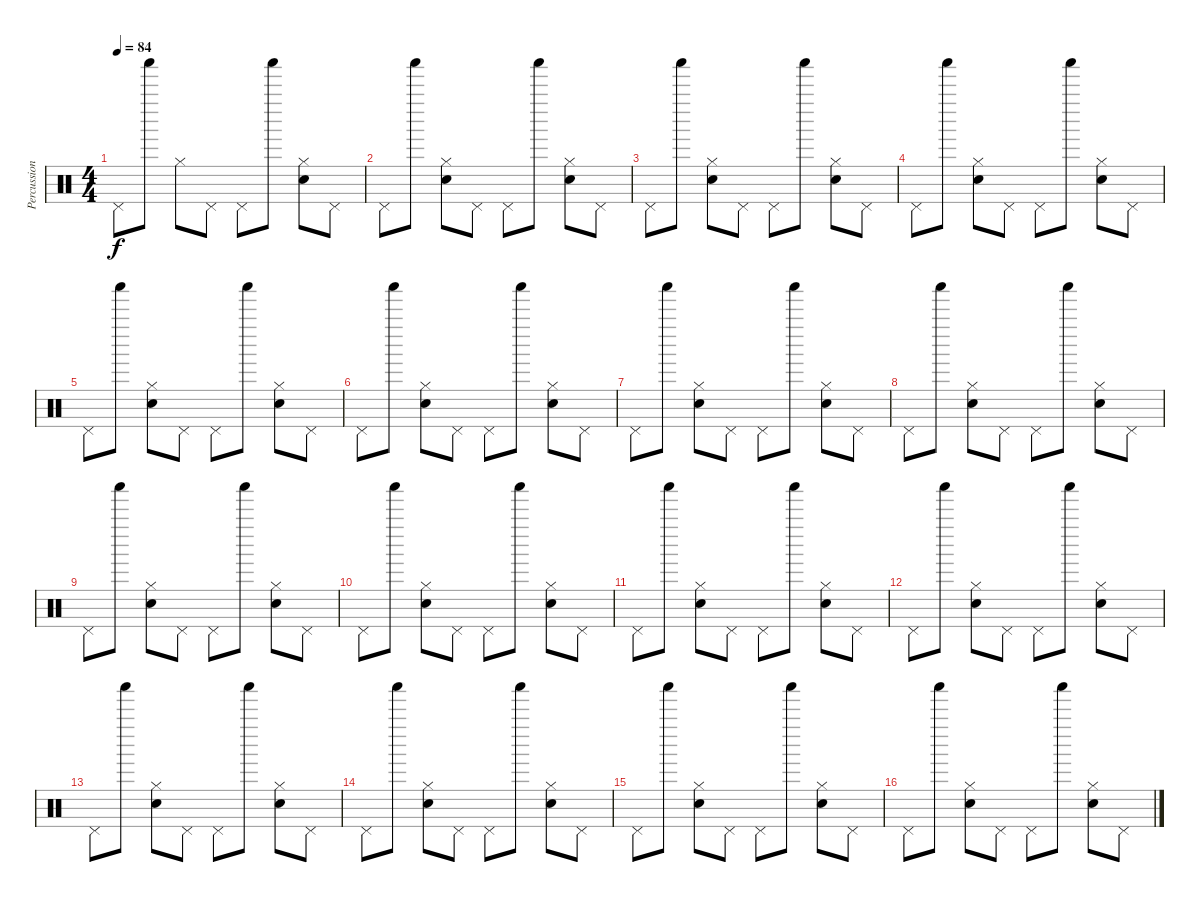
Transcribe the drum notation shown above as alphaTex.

\track ("Percussion" "Percussion") {instrument percussion}
\staff {score}
\articulation defaults
\ts (4 4)
\tempo 84
\clef neutral
\ks c "Pedal Hi-Hat (hit)".8{dy f} "Shaker (hit)".8 "Hi-Hat (closed)".8 "Pedal Hi-Hat (hit)".8 "Pedal Hi-Hat (hit)".8 "Shaker (hit)".8
("Hi-Hat (closed)" "Electric Snare (hit)").8 "Pedal Hi-Hat (hit)".8 |
"Pedal Hi-Hat (hit)".8 "Shaker (hit)".8 ("Hi-Hat (closed)" "Electric Snare (hit)").8 "Pedal Hi-Hat (hit)".8 "Pedal Hi-Hat (hit)".8 "Shaker (hit)".8 ("Hi-Hat (closed)" "Electric Snare (hit)").8 "Pedal Hi-Hat (hit)".8 |
"Pedal Hi-Hat (hit)".8 "Shaker (hit)".8 ("Hi-Hat (closed)" "Electric Snare (hit)").8 "Pedal Hi-Hat (hit)".8 "Pedal Hi-Hat (hit)".8 "Shaker (hit)".8 ("Hi-Hat (closed)" "Electric Snare (hit)").8 "Pedal Hi-Hat (hit)".8 |
"Pedal Hi-Hat (hit)".8 "Shaker (hit)".8 ("Hi-Hat (closed)" "Electric Snare (hit)").8 "Pedal Hi-Hat (hit)".8 "Pedal Hi-Hat (hit)".8 "Shaker (hit)".8 ("Hi-Hat (closed)" "Electric Snare (hit)").8 "Pedal Hi-Hat (hit)".8 |
"Pedal Hi-Hat (hit)".8 "Shaker (hit)".8 ("Hi-Hat (closed)" "Electric Snare (hit)").8 "Pedal Hi-Hat (hit)".8 "Pedal Hi-Hat (hit)".8 "Shaker (hit)".8 ("Hi-Hat (closed)" "Electric Snare (hit)").8 "Pedal Hi-Hat (hit)".8 |
"Pedal Hi-Hat (hit)".8 "Shaker (hit)".8 ("Hi-Hat (closed)" "Electric Snare (hit)").8 "Pedal Hi-Hat (hit)".8 "Pedal Hi-Hat (hit)".8 "Shaker (hit)".8 ("Hi-Hat (closed)" "Electric Snare (hit)").8 "Pedal Hi-Hat (hit)".8 |
"Pedal Hi-Hat (hit)".8 "Shaker (hit)".8 ("Hi-Hat (closed)" "Electric Snare (hit)").8 "Pedal Hi-Hat (hit)".8 "Pedal Hi-Hat (hit)".8 "Shaker (hit)".8 ("Hi-Hat (closed)" "Electric Snare (hit)").8 "Pedal Hi-Hat (hit)".8 |
"Pedal Hi-Hat (hit)".8 "Shaker (hit)".8 ("Hi-Hat (closed)" "Electric Snare (hit)").8 "Pedal Hi-Hat (hit)".8 "Pedal Hi-Hat (hit)".8 "Shaker (hit)".8 ("Hi-Hat (closed)" "Electric Snare (hit)").8 "Pedal Hi-Hat (hit)".8 |
"Pedal Hi-Hat (hit)".8 "Shaker (hit)".8 ("Hi-Hat (closed)" "Electric Snare (hit)").8 "Pedal Hi-Hat (hit)".8 "Pedal Hi-Hat (hit)".8 "Shaker (hit)".8 ("Hi-Hat (closed)" "Electric Snare (hit)").8 "Pedal Hi-Hat (hit)".8 |
"Pedal Hi-Hat (hit)".8 "Shaker (hit)".8 ("Hi-Hat (closed)" "Electric Snare (hit)").8 "Pedal Hi-Hat (hit)".8 "Pedal Hi-Hat (hit)".8 "Shaker (hit)".8 ("Hi-Hat (closed)" "Electric Snare (hit)").8 "Pedal Hi-Hat (hit)".8 |
"Pedal Hi-Hat (hit)".8 "Shaker (hit)".8 ("Hi-Hat (closed)" "Electric Snare (hit)").8 "Pedal Hi-Hat (hit)".8 "Pedal Hi-Hat (hit)".8 "Shaker (hit)".8 ("Hi-Hat (closed)" "Electric Snare (hit)").8 "Pedal Hi-Hat (hit)".8 |
"Pedal Hi-Hat (hit)".8 "Shaker (hit)".8 ("Hi-Hat (closed)" "Electric Snare (hit)").8 "Pedal Hi-Hat (hit)".8 "Pedal Hi-Hat (hit)".8 "Shaker (hit)".8 ("Hi-Hat (closed)" "Electric Snare (hit)").8 "Pedal Hi-Hat (hit)".8 |
"Pedal Hi-Hat (hit)".8 "Shaker (hit)".8 ("Hi-Hat (closed)" "Electric Snare (hit)").8 "Pedal Hi-Hat (hit)".8 "Pedal Hi-Hat (hit)".8 "Shaker (hit)".8 ("Hi-Hat (closed)" "Electric Snare (hit)").8 "Pedal Hi-Hat (hit)".8 |
"Pedal Hi-Hat (hit)".8 "Shaker (hit)".8 ("Hi-Hat (closed)" "Electric Snare (hit)").8 "Pedal Hi-Hat (hit)".8 "Pedal Hi-Hat (hit)".8 "Shaker (hit)".8 ("Hi-Hat (closed)" "Electric Snare (hit)").8 "Pedal Hi-Hat (hit)".8 |
"Pedal Hi-Hat (hit)".8 "Shaker (hit)".8 ("Hi-Hat (closed)" "Electric Snare (hit)").8 "Pedal Hi-Hat (hit)".8 "Pedal Hi-Hat (hit)".8 "Shaker (hit)".8 ("Hi-Hat (closed)" "Electric Snare (hit)").8 "Pedal Hi-Hat (hit)".8 |
"Pedal Hi-Hat (hit)".8 "Shaker (hit)".8 ("Hi-Hat (closed)" "Electric Snare (hit)").8 "Pedal Hi-Hat (hit)".8 "Pedal Hi-Hat (hit)".8 "Shaker (hit)".8 ("Hi-Hat (closed)" "Electric Snare (hit)").8 "Pedal Hi-Hat (hit)".8
